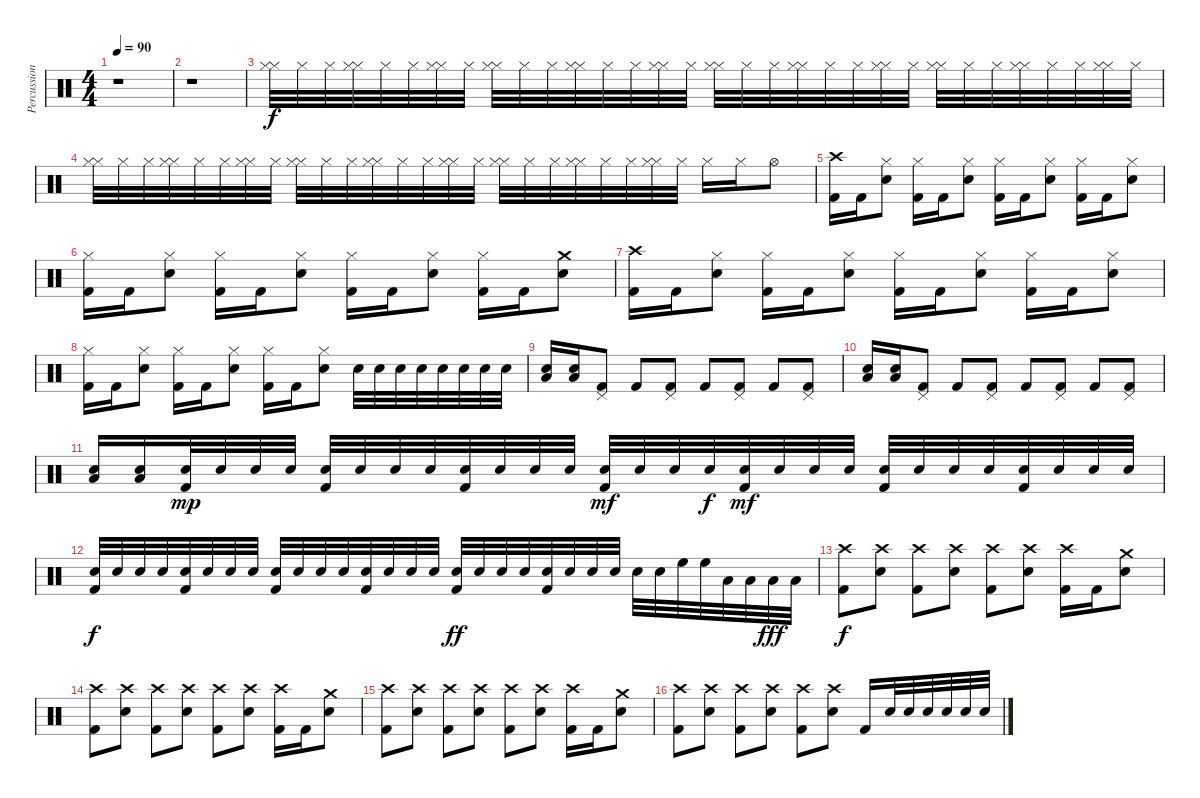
\track ("Percussion" "Percussion") {instrument percussion}
\staff {score}
\articulation defaults
\ts (4 4)
\tempo 90
\clef neutral
\ks c
r.1{dy f} |
r.1 |
("Hi-Hat (closed)" "Hi-Hat (closed)").32 "Hi-Hat (closed)".32 "Hi-Hat (closed)".32 ("Hi-Hat (closed)" "Hi-Hat (closed)").32 "Hi-Hat (closed)".32 "Hi-Hat (closed)".32 ("Hi-Hat (closed)" "Hi-Hat (closed)").32 "Hi-Hat (closed)".32 ("Hi-Hat (closed)" "Hi-Hat (closed)").32 "Hi-Hat (closed)".32 "Hi-Hat (closed)".32 ("Hi-Hat (closed)" "Hi-Hat (closed)").32 "Hi-Hat (closed)".32 "Hi-Hat (closed)".32 ("Hi-Hat (closed)" "Hi-Hat (closed)").32 "Hi-Hat (closed)".32 ("Hi-Hat (closed)" "Hi-Hat (closed)").32 "Hi-Hat (closed)".32 "Hi-Hat (closed)".32 ("Hi-Hat (closed)" "Hi-Hat (closed)").32 "Hi-Hat (closed)".32 "Hi-Hat (closed)".32 ("Hi-Hat (closed)" "Hi-Hat (closed)").32 "Hi-Hat (closed)".32 ("Hi-Hat (closed)" "Hi-Hat (closed)").32 "Hi-Hat (closed)".32 "Hi-Hat (closed)".32 ("Hi-Hat (closed)" "Hi-Hat (closed)").32 "Hi-Hat (closed)".32 "Hi-Hat (closed)".32 ("Hi-Hat (closed)" "Hi-Hat (closed)").32 "Hi-Hat (closed)".32 |
("Hi-Hat (closed)" "Hi-Hat (closed)").32 "Hi-Hat (closed)".32 "Hi-Hat (closed)".32 ("Hi-Hat (closed)" "Hi-Hat (closed)").32 "Hi-Hat (closed)".32 "Hi-Hat (closed)".32 ("Hi-Hat (closed)" "Hi-Hat (closed)").32 "Hi-Hat (closed)".32 ("Hi-Hat (closed)" "Hi-Hat (closed)").32 "Hi-Hat (closed)".32 "Hi-Hat (closed)".32 ("Hi-Hat (closed)" "Hi-Hat (closed)").32 "Hi-Hat (closed)".32 "Hi-Hat (closed)".32 ("Hi-Hat (closed)" "Hi-Hat (closed)").32 "Hi-Hat (closed)".32 ("Hi-Hat (closed)" "Hi-Hat (closed)").32 "Hi-Hat (closed)".32 "Hi-Hat (closed)".32 ("Hi-Hat (closed)" "Hi-Hat (closed)").32 "Hi-Hat (closed)".32 "Hi-Hat (closed)".32 ("Hi-Hat (closed)" "Hi-Hat (closed)").32 "Hi-Hat (closed)".32 "Hi-Hat (closed)".16 "Hi-Hat (closed)".16 "Hi-Hat (open)".8 |
("Crash high (hit)" "Kick (hit) 2").16 "Kick (hit) 2".16 ("Hi-Hat (closed)" "Snare (hit) 2").8 ("Hi-Hat (closed)" "Kick (hit) 2").16 "Kick (hit) 2".16 ("Hi-Hat (closed)" "Snare (hit) 2").8 ("Hi-Hat (closed)" "Kick (hit) 2").16 "Kick (hit) 2".16 ("Hi-Hat (closed)" "Snare (hit) 2").8 ("Hi-Hat (closed)" "Kick (hit) 2").16 "Kick (hit) 2".16 ("Hi-Hat (closed)" "Snare (hit) 2").8 |
("Hi-Hat (closed)" "Kick (hit) 2").16 "Kick (hit) 2".16 ("Hi-Hat (closed)" "Snare (hit) 2").8 ("Hi-Hat (closed)" "Kick (hit) 2").16 "Kick (hit) 2".16 ("Hi-Hat (closed)" "Snare (hit) 2").8 ("Hi-Hat (closed)" "Kick (hit) 2").16 "Kick (hit) 2".16 ("Hi-Hat (closed)" "Snare (hit) 2").8 ("Hi-Hat (closed)" "Kick (hit) 2").16 "Kick (hit) 2".16 ("Crash medium (hit)" "Snare (hit) 2").8 |
("Crash high (hit)" "Kick (hit) 2").16 "Kick (hit) 2".16 ("Hi-Hat (closed)" "Snare (hit) 2").8 ("Hi-Hat (closed)" "Kick (hit) 2").16 "Kick (hit) 2".16 ("Hi-Hat (closed)" "Snare (hit) 2").8 ("Hi-Hat (closed)" "Kick (hit) 2").16 "Kick (hit) 2".16 ("Hi-Hat (closed)" "Snare (hit) 2").8 ("Hi-Hat (closed)" "Kick (hit) 2").16 "Kick (hit) 2".16 ("Hi-Hat (closed)" "Snare (hit) 2").8 |
("Hi-Hat (closed)" "Kick (hit) 2").16 "Kick (hit) 2".16 ("Hi-Hat (closed)" "Snare (hit) 2").8 ("Hi-Hat (closed)" "Kick (hit) 2").16 "Kick (hit) 2".16 ("Hi-Hat (closed)" "Snare (hit) 2").8 ("Hi-Hat (closed)" "Kick (hit) 2").16 "Kick (hit) 2".16 ("Hi-Hat (closed)" "Snare (hit) 2").8 "Snare (hit) 2".32 "Snare (hit) 2".32 "Snare (hit) 2".32 "Snare (hit) 2".32 "Snare (hit) 2".32 "Snare (hit) 2".32 "Snare (hit) 2".32 "Snare (hit) 2".32 |
("Low Floor Tom (hit)" "Snare (hit) 2").16 ("Low Floor Tom (hit)" "Snare (hit) 2").16 ("Pedal Hi-Hat (hit)" "Kick (hit) 2").8 "Kick (hit) 2".8 ("Pedal Hi-Hat (hit)" "Kick (hit) 2").8 "Kick (hit) 2".8 ("Pedal Hi-Hat (hit)" "Kick (hit) 2").8 "Kick (hit) 2".8 ("Pedal Hi-Hat (hit)" "Kick (hit) 2").8 |
("Low Floor Tom (hit)" "Snare (hit) 2").16 ("Low Floor Tom (hit)" "Snare (hit) 2").16 ("Pedal Hi-Hat (hit)" "Kick (hit) 2").8 "Kick (hit) 2".8 ("Pedal Hi-Hat (hit)" "Kick (hit) 2").8 "Kick (hit) 2".8 ("Pedal Hi-Hat (hit)" "Kick (hit) 2").8 "Kick (hit) 2".8 ("Pedal Hi-Hat (hit)" "Kick (hit) 2").8 |
("Low Floor Tom (hit)" "Snare (hit) 2").16 ("Low Floor Tom (hit)" "Snare (hit) 2").16 ("Snare (hit) 2" "Kick (hit) 2").32{dy mp} "Snare (hit) 2".32 "Snare (hit) 2".32 "Snare (hit) 2".32 ("Snare (hit) 2" "Kick (hit) 2").32 "Snare (hit) 2".32 "Snare (hit) 2".32 "Snare (hit) 2".32 ("Snare (hit) 2" "Kick (hit) 2").32 "Snare (hit) 2".32 "Snare (hit) 2".32 "Snare (hit) 2".32 ("Snare (hit) 2" "Kick (hit) 2").32{dy mf} "Snare (hit) 2".32 "Snare (hit) 2".32 "Snare (hit) 2".32{dy f} ("Snare (hit) 2" "Kick (hit) 2").32{dy mf} "Snare (hit) 2".32 "Snare (hit) 2".32 "Snare (hit) 2".32 ("Snare (hit) 2" "Kick (hit) 2").32 "Snare (hit) 2".32 "Snare (hit) 2".32 "Snare (hit) 2".32 ("Snare (hit) 2" "Kick (hit) 2").32 "Snare (hit) 2".32 "Snare (hit) 2".32 "Snare (hit) 2".32 |
("Snare (hit) 2" "Kick (hit) 2").32{dy f} "Snare (hit) 2".32 "Snare (hit) 2".32 "Snare (hit) 2".32 ("Snare (hit) 2" "Kick (hit) 2").32 "Snare (hit) 2".32 "Snare (hit) 2".32 "Snare (hit) 2".32 ("Snare (hit) 2" "Kick (hit) 2").32 "Snare (hit) 2".32 "Snare (hit) 2".32 "Snare (hit) 2".32 ("Snare (hit) 2" "Kick (hit) 2").32 "Snare (hit) 2".32 "Snare (hit) 2".32 "Snare (hit) 2".32 ("Snare (hit) 2" "Kick (hit) 2").32{dy ff} "Snare (hit) 2".32 "Snare (hit) 2".32 "Snare (hit) 2".32 ("Snare (hit) 2" "Kick (hit) 2").32 "Snare (hit) 2".32 "Snare (hit) 2".32 "Snare (hit) 2".32 "Snare (hit) 2".32 "Snare (hit) 2".32 "High Floor Tom (hit)".32 "High Floor Tom (hit)".32 "Low Tom (hit)".32 "Low Tom (hit)".32 "Low Floor Tom (hit)".32{dy fff} "Low Floor Tom (hit)".32 |
("Crash high (hit)" "Kick (hit) 2").8{dy f} ("Crash high (hit)" "Snare (hit) 2").8 ("Crash high (hit)" "Kick (hit) 2").8 ("Crash high (hit)" "Snare (hit) 2").8 ("Crash high (hit)" "Kick (hit) 2").8 ("Crash high (hit)" "Snare (hit) 2").8 ("Crash high (hit)" "Kick (hit) 2").16 "Kick (hit) 2".16 ("Crash medium (hit)" "Snare (hit) 2").8 |
("Crash high (hit)" "Kick (hit) 2").8 ("Crash high (hit)" "Snare (hit) 2").8 ("Crash high (hit)" "Kick (hit) 2").8 ("Crash high (hit)" "Snare (hit) 2").8 ("Crash high (hit)" "Kick (hit) 2").8 ("Crash high (hit)" "Snare (hit) 2").8 ("Crash high (hit)" "Kick (hit) 2").16 "Kick (hit) 2".16 ("Crash medium (hit)" "Snare (hit) 2").8 |
("Crash high (hit)" "Kick (hit) 2").8 ("Crash high (hit)" "Snare (hit) 2").8 ("Crash high (hit)" "Kick (hit) 2").8 ("Crash high (hit)" "Snare (hit) 2").8 ("Crash high (hit)" "Kick (hit) 2").8 ("Crash high (hit)" "Snare (hit) 2").8 ("Crash high (hit)" "Kick (hit) 2").16 "Kick (hit) 2".16 ("Crash medium (hit)" "Snare (hit) 2").8 |
("Crash high (hit)" "Kick (hit) 2").8 ("Crash high (hit)" "Snare (hit) 2").8 ("Crash high (hit)" "Kick (hit) 2").8 ("Crash high (hit)" "Snare (hit) 2").8 ("Crash high (hit)" "Kick (hit) 2").8 ("Crash high (hit)" "Snare (hit) 2").8 "Kick (hit) 2".16 "Snare (hit) 2".32 "Snare (hit) 2".32 "Snare (hit) 2".32 "Snare (hit) 2".32 "Snare (hit) 2".32 "Snare (hit) 2".32
